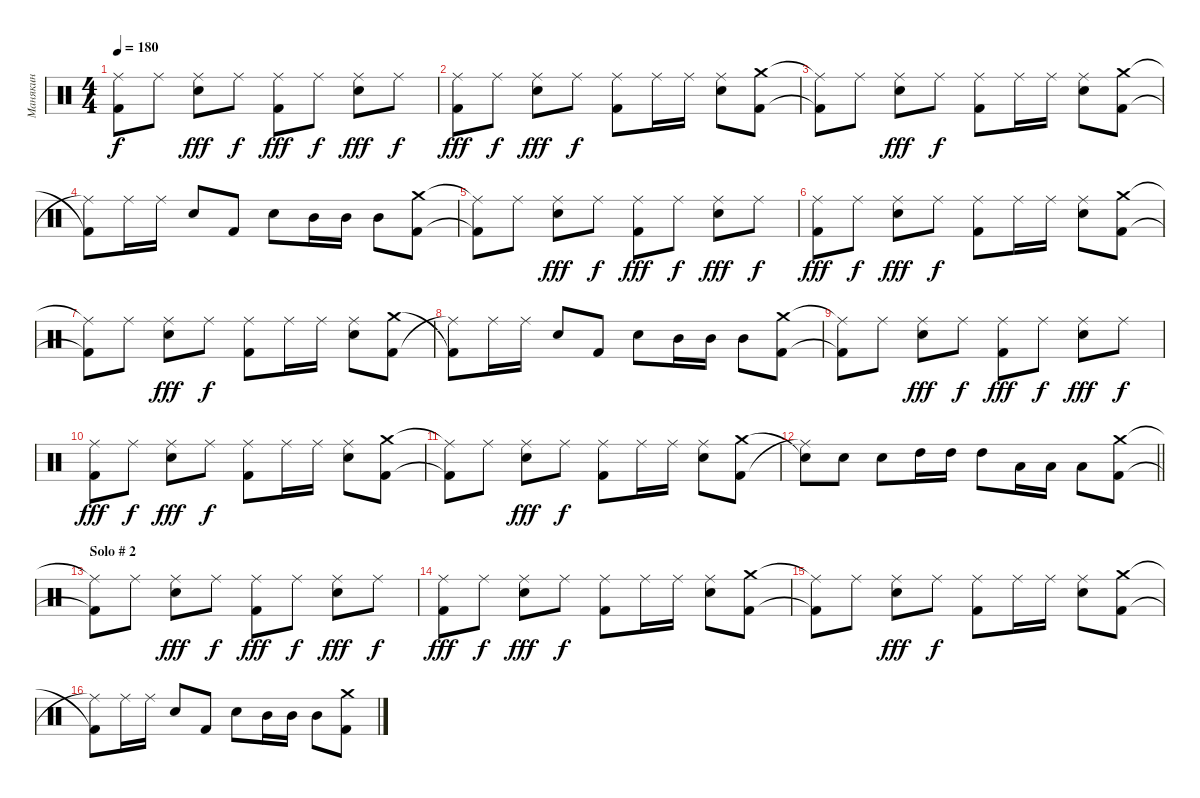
\track ("Манякин" "Манякин") {instrument percussion}
\staff {score}
\articulation defaults
\ts (4 4)
\tempo 180
\clef neutral
\ks c
("Ride (middle)"{t} "Kick (hit) 2"{t}).8{dy f} "Ride (middle)".8 ("Snare (hit) 2" "Ride (middle)").8{dy fff} "Ride (middle)".8{dy f} ("Kick (hit) 2" "Ride (middle)").8{dy fff} "Ride (middle)".8{dy f} ("Snare (hit) 2" "Ride (middle)").8{dy fff} "Ride (middle)".8{dy f} |
("Kick (hit) 2" "Ride (middle)").8{dy fff} "Ride (middle)".8{dy f} ("Snare (hit) 2" "Ride (middle)").8{dy fff} "Ride (middle)".8{dy f} ("Kick (hit) 2" "Ride (middle)").8 "Ride (middle)".16 "Ride (middle)".16 ("Snare (hit) 2" "Ride (middle)").8 ("Kick (hit) 2" "Crash medium (hit)").8 |
("Kick (hit) 2"{t} "Ride (middle)"{t}).8 "Ride (middle)".8 ("Snare (hit) 2" "Ride (middle)").8{dy fff} "Ride (middle)".8{dy f} ("Kick (hit) 2" "Ride (middle)").8 "Ride (middle)".16 "Ride (middle)".16 ("Snare (hit) 2" "Ride (middle)").8 ("Kick (hit) 2" "Crash medium (hit)").8 |
("Ride (middle)"{t} "Kick (hit) 2"{t}).8 "Ride (middle)".16 "Ride (middle)".16 "Snare (hit) 2".8 "Kick (hit) 2".8 "Snare (hit) 2".8 "Mid Tom (hit)".16 "Mid Tom (hit)".16 "Mid Tom (hit)".8 ("Kick (hit) 2" "Crash medium (hit)").8 |
("Kick (hit) 2"{t} "Ride (middle)"{t}).8 "Ride (middle)".8 ("Snare (hit) 2" "Ride (middle)").8{dy fff} "Ride (middle)".8{dy f} ("Kick (hit) 2" "Ride (middle)").8{dy fff} "Ride (middle)".8{dy f} ("Snare (hit) 2" "Ride (middle)").8{dy fff} "Ride (middle)".8{dy f} |
("Kick (hit) 2" "Ride (middle)").8{dy fff} "Ride (middle)".8{dy f} ("Snare (hit) 2" "Ride (middle)").8{dy fff} "Ride (middle)".8{dy f} ("Kick (hit) 2" "Ride (middle)").8 "Ride (middle)".16 "Ride (middle)".16 ("Snare (hit) 2" "Ride (middle)").8 ("Kick (hit) 2" "Crash medium (hit)").8 |
("Kick (hit) 2"{t} "Ride (middle)"{t}).8 "Ride (middle)".8 ("Snare (hit) 2" "Ride (middle)").8{dy fff} "Ride (middle)".8{dy f} ("Kick (hit) 2" "Ride (middle)").8 "Ride (middle)".16 "Ride (middle)".16 ("Snare (hit) 2" "Ride (middle)").8 ("Kick (hit) 2" "Crash medium (hit)").8 |
("Ride (middle)"{t} "Kick (hit) 2"{t}).8 "Ride (middle)".16 "Ride (middle)".16 "Snare (hit) 2".8 "Kick (hit) 2".8 "Snare (hit) 2".8 "Mid Tom (hit)".16 "Mid Tom (hit)".16 "Mid Tom (hit)".8 ("Kick (hit) 2" "Crash medium (hit)").8 |
("Kick (hit) 2"{t} "Ride (middle)"{t}).8 "Ride (middle)".8 ("Snare (hit) 2" "Ride (middle)").8{dy fff} "Ride (middle)".8{dy f} ("Kick (hit) 2" "Ride (middle)").8{dy fff} "Ride (middle)".8{dy f} ("Snare (hit) 2" "Ride (middle)").8{dy fff} "Ride (middle)".8{dy f} |
("Kick (hit) 2" "Ride (middle)").8{dy fff} "Ride (middle)".8{dy f} ("Snare (hit) 2" "Ride (middle)").8{dy fff} "Ride (middle)".8{dy f} ("Kick (hit) 2" "Ride (middle)").8 "Ride (middle)".16 "Ride (middle)".16 ("Snare (hit) 2" "Ride (middle)").8 ("Kick (hit) 2" "Crash medium (hit)").8 |
("Kick (hit) 2"{t} "Ride (middle)"{t}).8 "Ride (middle)".8 ("Snare (hit) 2" "Ride (middle)").8{dy fff} "Ride (middle)".8{dy f} ("Kick (hit) 2" "Ride (middle)").8 "Ride (middle)".16 "Ride (middle)".16 ("Snare (hit) 2" "Ride (middle)").8 ("Kick (hit) 2" "Crash medium (hit)").8 |
\barLineRight lightlight
("Ride (middle)"{t} "Snare (hit)"{t}).8 "Snare (hit) 2".8 "Snare (hit) 2".8 "High Tom (hit)".16 "High Tom (hit)".16 "High Tom (hit)".8 "Low Tom (hit)".16 "Low Tom (hit)".16 "Low Tom (hit)".8 ("Kick (hit) 2" "Crash medium (hit)").8 |
\section ("" "Solo # 2")
("Kick (hit) 2"{t} "Ride (middle)"{t}).8 "Ride (middle)".8 ("Snare (hit) 2" "Ride (middle)").8{dy fff} "Ride (middle)".8{dy f} ("Kick (hit) 2" "Ride (middle)").8{dy fff} "Ride (middle)".8{dy f} ("Snare (hit) 2" "Ride (middle)").8{dy fff} "Ride (middle)".8{dy f} |
("Kick (hit) 2" "Ride (middle)").8{dy fff} "Ride (middle)".8{dy f} ("Snare (hit) 2" "Ride (middle)").8{dy fff} "Ride (middle)".8{dy f} ("Kick (hit) 2" "Ride (middle)").8 "Ride (middle)".16 "Ride (middle)".16 ("Snare (hit) 2" "Ride (middle)").8 ("Kick (hit) 2" "Crash medium (hit)").8 |
("Kick (hit) 2"{t} "Ride (middle)"{t}).8 "Ride (middle)".8 ("Snare (hit) 2" "Ride (middle)").8{dy fff} "Ride (middle)".8{dy f} ("Kick (hit) 2" "Ride (middle)").8 "Ride (middle)".16 "Ride (middle)".16 ("Snare (hit) 2" "Ride (middle)").8 ("Kick (hit) 2" "Crash medium (hit)").8 |
("Ride (middle)"{t} "Kick (hit) 2"{t}).8 "Ride (middle)".16 "Ride (middle)".16 "Snare (hit) 2".8 "Kick (hit) 2".8 "Snare (hit) 2".8 "Mid Tom (hit)".16 "Mid Tom (hit)".16 "Mid Tom (hit)".8 ("Kick (hit) 2" "Crash medium (hit)").8
